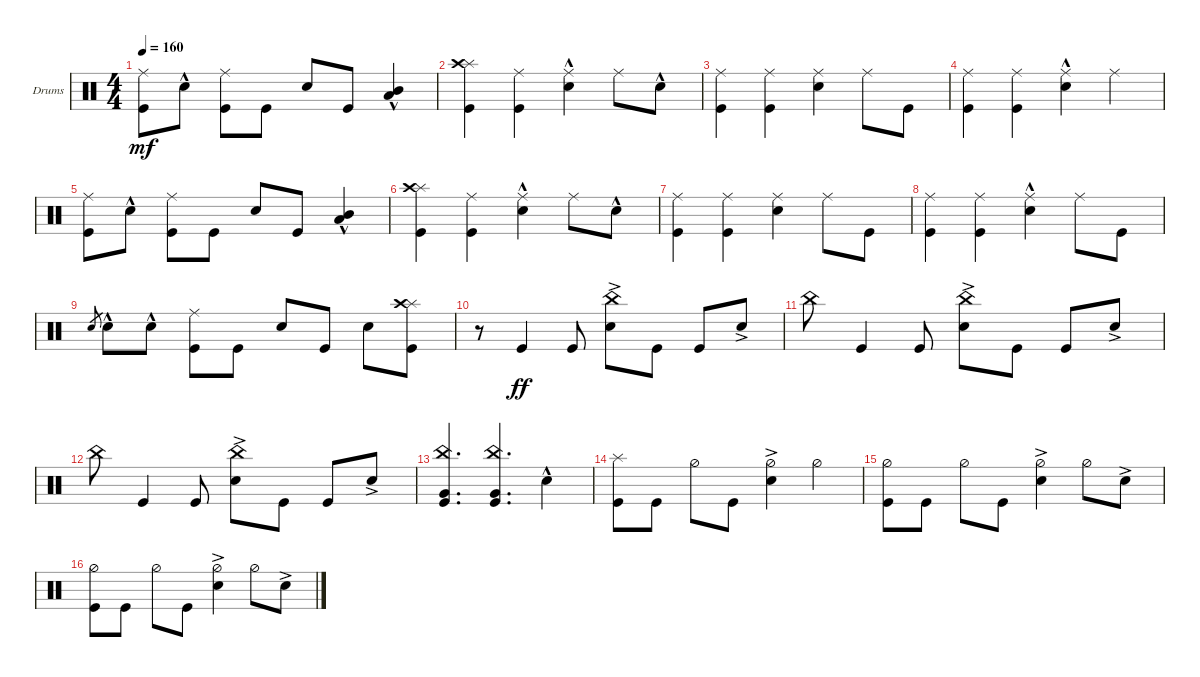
\defaultSystemsLayout 4
\bracketExtendMode groupsimilarinstruments
\firstSystemTrackNameOrientation horizontal
\otherSystemsTrackNameOrientation horizontal
\track ("Drumkit" "Drums") {instrument percussion}
\staff {score}
\articulation defaults
\ts (4 4)
\tempo 160
\clef neutral
\scale
0.333333
\ks c
("Kick (hit)" "Ride (middle)").8{dy mf} "Snare (hit) 2"{hac}.8 ("Kick (hit)" "Ride (middle)").8 "Kick (hit)".8 "Snare (hit) 2".8 "Kick (hit)".8 ("Low Tom (hit)"{hac} "Mid Tom (hit)"{hac}).4 |
\scale
0.333333 ("Kick (hit)" "Splash (hit)" "Crash high (hit)").4 ("Kick (hit)" "Ride (middle)").4 ("Snare (hit) 2"{hac} "Ride (middle)").4 "Ride (middle)".8 "Snare (hit) 2"{hac}.8 |
\scale
0.333333 ("Kick (hit)" "Ride (middle)").4 ("Kick (hit)" "Ride (middle)").4 ("Snare (hit) 2" "Ride (middle)").4 "Ride (middle)".8 "Kick (hit)".8 |
\scale
0.333333 ("Kick (hit)" "Ride (middle)").4 ("Kick (hit)" "Ride (middle)").4 ("Snare (hit) 2"{hac} "Ride (middle)").4 "Ride (middle)".4 |
\scale
0.333333 ("Kick (hit)" "Ride (middle)").8 "Snare (hit) 2"{hac}.8 ("Kick (hit)" "Ride (middle)").8 "Kick (hit)".8 "Snare (hit) 2".8 "Kick (hit)".8 ("Low Tom (hit)"{hac} "Mid Tom (hit)"{hac}).4 |
\scale
0.333333 ("Kick (hit)" "Splash (hit)" "Crash high (hit)").4 ("Kick (hit)" "Ride (middle)").4 ("Snare (hit) 2"{hac} "Ride (middle)").4 "Ride (middle)".8 "Snare (hit) 2"{hac}.8 |
\scale
0.333333 ("Kick (hit)" "Ride (middle)").4 ("Kick (hit)" "Ride (middle)").4 ("Snare (hit) 2" "Ride (middle)").4 "Ride (middle)".8 "Kick (hit)".8 |
\scale
0.333333 ("Kick (hit)" "Ride (middle)").4 ("Kick (hit)" "Ride (middle)").4 ("Snare (hit) 2"{hac} "Ride (middle)").4 "Ride (middle)".8 "Kick (hit)".8 |
\scale
0.333333 "Snare (hit) 2".8{gr} "Snare (hit) 2"{hac}.8 "Snare (hit) 2"{hac}.8 ("Kick (hit)" "Ride (middle)").8 "Kick (hit)".8 "Snare (hit) 2".8 "Kick (hit)".8 "Snare (hit) 2".8 ("Kick (hit)" "Splash (hit)" "Crash high (hit)").8 |
\scale
0.333333 r.8 "Kick (hit)".4{dy ff} "Kick (hit)".8 ("Snare (hit) 2"{ac} "China (hit)").8 "Kick (hit)".8 "Kick (hit)".8 "Snare (hit) 2"{ac}.8 |
\scale
0.333333 "China (hit)".8 "Kick (hit)".4 "Kick (hit)".8 ("Snare (hit) 2"{ac} "China (hit)").8 "Kick (hit)".8 "Kick (hit)".8 "Snare (hit) 2"{ac}.8 |
\scale
0.333333 "China (hit)".8 "Kick (hit)".4 "Kick (hit)".8 ("Snare (hit) 2"{ac} "China (hit)").8 "Kick (hit)".8 "Kick (hit)".8 "Snare (hit) 2"{ac}.8 |
\scale
0.333333 ("China (hit)" "Kick (hit)" "Very Low Tom (hit)").4{d} ("Kick (hit)" "Very Low Tom (hit)" "China (hit)").4{d} "Snare (hit) 2"{hac}.4 |
\scale
0.333333 ("Kick (hit)" "Splash (hit)").8 "Kick (hit)".8 "Hi-Hat (half)".8 "Kick (hit)".8 ("Snare (hit) 2"{ac} "Hi-Hat (half)").4 "Hi-Hat (half)".4 |
\scale
0.333333 ("Kick (hit)" "Hi-Hat (half)").8 "Kick (hit)".8 "Hi-Hat (half)".8 "Kick (hit)".8 ("Snare (hit) 2"{ac} "Hi-Hat (half)").4 "Hi-Hat (half)".8 "Snare (hit) 2"{ac}.8 |
\scale
0.333333 ("Kick (hit)" "Hi-Hat (half)").8 "Kick (hit)".8 "Hi-Hat (half)".8 "Kick (hit)".8 ("Snare (hit) 2"{ac} "Hi-Hat (half)").4 "Hi-Hat (half)".8 "Snare (hit) 2"{ac}.8
